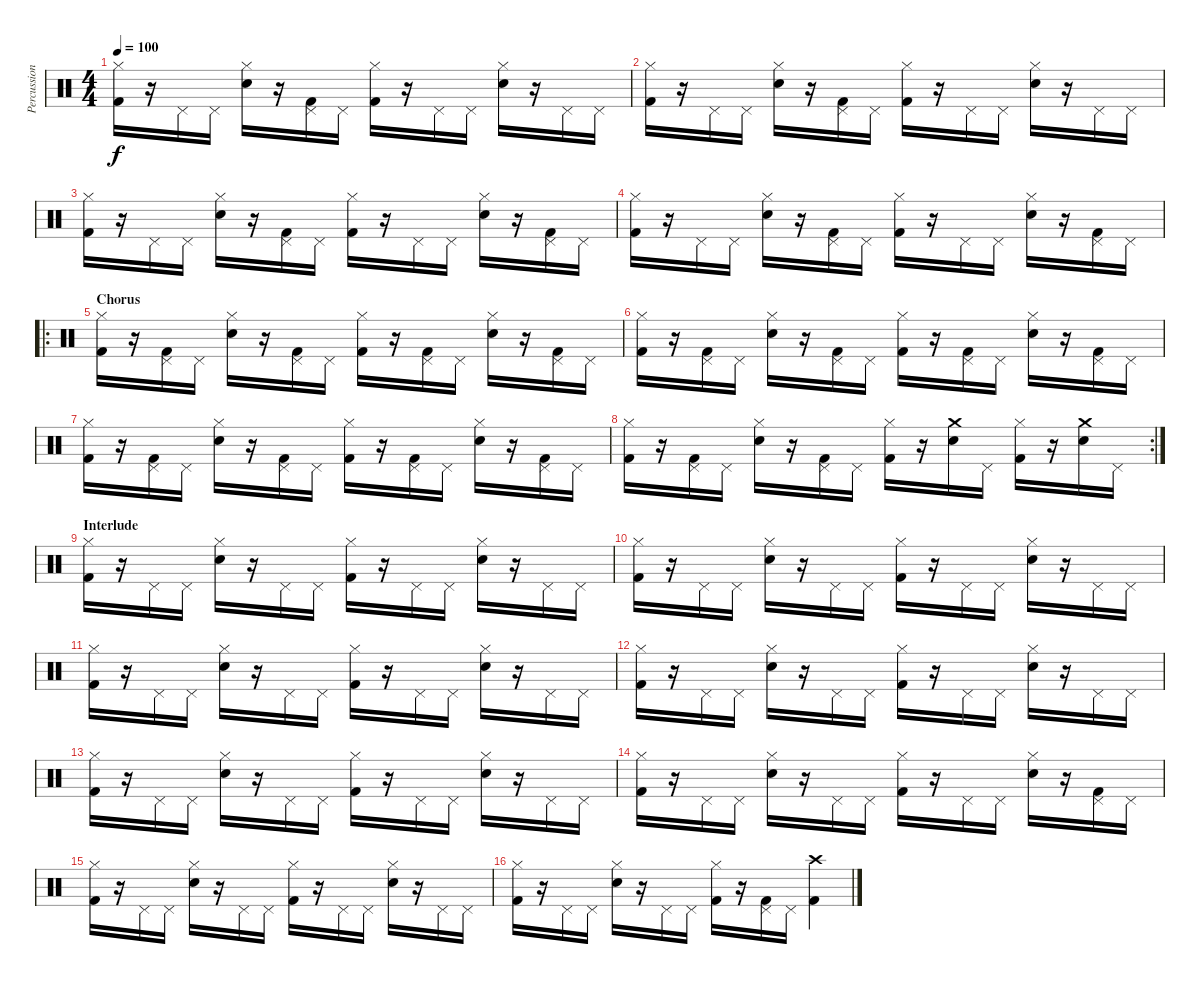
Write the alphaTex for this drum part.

\track ("Percussion" "Percussion") {instrument percussion}
\staff {score}
\articulation defaults
\ts (4 4)
\tempo 100
\clef neutral
\ks c
("Hi-Hat (closed)" "Kick (hit) 2").16{dy f} r.16 "Pedal Hi-Hat (hit)".16 "Pedal Hi-Hat (hit)".16 ("Hi-Hat (closed)" "Snare (hit) 2").16 r.16 ("Pedal Hi-Hat (hit)" "Kick (hit) 2").16 "Pedal Hi-Hat (hit)".16 ("Hi-Hat (closed)" "Kick (hit) 2").16 r.16 "Pedal Hi-Hat (hit)".16 "Pedal Hi-Hat (hit)".16 ("Hi-Hat (closed)" "Snare (hit) 2").16 r.16 "Pedal Hi-Hat (hit)".16 "Pedal Hi-Hat (hit)".16 |
("Hi-Hat (closed)" "Kick (hit) 2").16 r.16 "Pedal Hi-Hat (hit)".16 "Pedal Hi-Hat (hit)".16 ("Hi-Hat (closed)" "Snare (hit) 2").16 r.16 ("Pedal Hi-Hat (hit)" "Kick (hit) 2").16 "Pedal Hi-Hat (hit)".16 ("Hi-Hat (closed)" "Kick (hit) 2").16 r.16 "Pedal Hi-Hat (hit)".16 "Pedal Hi-Hat (hit)".16 ("Hi-Hat (closed)" "Snare (hit) 2").16 r.16 "Pedal Hi-Hat (hit)".16 "Pedal Hi-Hat (hit)".16 |
("Hi-Hat (closed)" "Kick (hit) 2").16 r.16 "Pedal Hi-Hat (hit)".16 "Pedal Hi-Hat (hit)".16 ("Hi-Hat (closed)" "Snare (hit) 2").16 r.16 ("Pedal Hi-Hat (hit)" "Kick (hit) 2").16 "Pedal Hi-Hat (hit)".16 ("Hi-Hat (closed)" "Kick (hit) 2").16 r.16 "Pedal Hi-Hat (hit)".16 "Pedal Hi-Hat (hit)".16 ("Hi-Hat (closed)" "Snare (hit) 2").16 r.16 ("Pedal Hi-Hat (hit)" "Kick (hit) 2").16 "Pedal Hi-Hat (hit)".16 |
("Hi-Hat (closed)" "Kick (hit) 2").16 r.16 "Pedal Hi-Hat (hit)".16 "Pedal Hi-Hat (hit)".16 ("Hi-Hat (closed)" "Snare (hit) 2").16 r.16 ("Pedal Hi-Hat (hit)" "Kick (hit) 2").16 "Pedal Hi-Hat (hit)".16 ("Hi-Hat (closed)" "Kick (hit) 2").16 r.16 "Pedal Hi-Hat (hit)".16 "Pedal Hi-Hat (hit)".16 ("Hi-Hat (closed)" "Snare (hit) 2").16 r.16 ("Pedal Hi-Hat (hit)" "Kick (hit) 2").16 "Pedal Hi-Hat (hit)".16 |
\ro
\section ("" "Chorus")
("Hi-Hat (closed)" "Kick (hit) 2").16 r.16 ("Pedal Hi-Hat (hit)" "Kick (hit) 2").16 "Pedal Hi-Hat (hit)".16 ("Hi-Hat (closed)" "Snare (hit) 2").16 r.16 ("Pedal Hi-Hat (hit)" "Kick (hit) 2").16 "Pedal Hi-Hat (hit)".16 ("Hi-Hat (closed)" "Kick (hit) 2").16 r.16 ("Pedal Hi-Hat (hit)" "Kick (hit) 2").16 "Pedal Hi-Hat (hit)".16 ("Hi-Hat (closed)" "Snare (hit) 2").16 r.16 ("Pedal Hi-Hat (hit)" "Kick (hit) 2").16 "Pedal Hi-Hat (hit)".16 |
("Hi-Hat (closed)" "Kick (hit) 2").16 r.16 ("Pedal Hi-Hat (hit)" "Kick (hit) 2").16 "Pedal Hi-Hat (hit)".16 ("Hi-Hat (closed)" "Snare (hit) 2").16 r.16 ("Pedal Hi-Hat (hit)" "Kick (hit) 2").16 "Pedal Hi-Hat (hit)".16 ("Hi-Hat (closed)" "Kick (hit) 2").16 r.16 ("Pedal Hi-Hat (hit)" "Kick (hit) 2").16 "Pedal Hi-Hat (hit)".16 ("Hi-Hat (closed)" "Snare (hit) 2").16 r.16 ("Pedal Hi-Hat (hit)" "Kick (hit) 2").16 "Pedal Hi-Hat (hit)".16 |
("Hi-Hat (closed)" "Kick (hit) 2").16 r.16 ("Pedal Hi-Hat (hit)" "Kick (hit) 2").16 "Pedal Hi-Hat (hit)".16 ("Hi-Hat (closed)" "Snare (hit) 2").16 r.16 ("Pedal Hi-Hat (hit)" "Kick (hit) 2").16 "Pedal Hi-Hat (hit)".16 ("Hi-Hat (closed)" "Kick (hit) 2").16 r.16 ("Pedal Hi-Hat (hit)" "Kick (hit) 2").16 "Pedal Hi-Hat (hit)".16 ("Hi-Hat (closed)" "Snare (hit) 2").16 r.16 ("Pedal Hi-Hat (hit)" "Kick (hit) 2").16 "Pedal Hi-Hat (hit)".16 |
\rc 2
("Hi-Hat (closed)" "Kick (hit) 2").16 r.16 ("Pedal Hi-Hat (hit)" "Kick (hit) 2").16 "Pedal Hi-Hat (hit)".16 ("Hi-Hat (closed)" "Snare (hit) 2").16 r.16 ("Pedal Hi-Hat (hit)" "Kick (hit) 2").16 "Pedal Hi-Hat (hit)".16 ("Hi-Hat (closed)" "Kick (hit) 2").16 r.16 ("Crash medium (hit)" "Snare (hit) 2").16 "Pedal Hi-Hat (hit)".16 ("Hi-Hat (closed)" "Kick (hit) 2").16 r.16 ("Crash medium (hit)" "Snare (hit) 2").16 "Pedal Hi-Hat (hit)".16 |
\section ("" "Interlude")
("Hi-Hat (closed)" "Kick (hit) 2").16 r.16 "Pedal Hi-Hat (hit)".16 "Pedal Hi-Hat (hit)".16 ("Hi-Hat (closed)" "Snare (hit) 2").16 r.16 "Pedal Hi-Hat (hit)".16 "Pedal Hi-Hat (hit)".16 ("Hi-Hat (closed)" "Kick (hit) 2").16 r.16 "Pedal Hi-Hat (hit)".16 "Pedal Hi-Hat (hit)".16 ("Hi-Hat (closed)" "Snare (hit) 2").16 r.16 "Pedal Hi-Hat (hit)".16 "Pedal Hi-Hat (hit)".16 |
("Hi-Hat (closed)" "Kick (hit) 2").16 r.16 "Pedal Hi-Hat (hit)".16 "Pedal Hi-Hat (hit)".16 ("Hi-Hat (closed)" "Snare (hit) 2").16 r.16 "Pedal Hi-Hat (hit)".16 "Pedal Hi-Hat (hit)".16 ("Hi-Hat (closed)" "Kick (hit) 2").16 r.16 "Pedal Hi-Hat (hit)".16 "Pedal Hi-Hat (hit)".16 ("Hi-Hat (closed)" "Snare (hit) 2").16 r.16 "Pedal Hi-Hat (hit)".16 "Pedal Hi-Hat (hit)".16 |
("Hi-Hat (closed)" "Kick (hit) 2").16 r.16 "Pedal Hi-Hat (hit)".16 "Pedal Hi-Hat (hit)".16 ("Hi-Hat (closed)" "Snare (hit) 2").16 r.16 "Pedal Hi-Hat (hit)".16 "Pedal Hi-Hat (hit)".16 ("Hi-Hat (closed)" "Kick (hit) 2").16 r.16 "Pedal Hi-Hat (hit)".16 "Pedal Hi-Hat (hit)".16 ("Hi-Hat (closed)" "Snare (hit) 2").16 r.16 "Pedal Hi-Hat (hit)".16 "Pedal Hi-Hat (hit)".16 |
("Hi-Hat (closed)" "Kick (hit) 2").16 r.16 "Pedal Hi-Hat (hit)".16 "Pedal Hi-Hat (hit)".16 ("Hi-Hat (closed)" "Snare (hit) 2").16 r.16 "Pedal Hi-Hat (hit)".16 "Pedal Hi-Hat (hit)".16 ("Hi-Hat (closed)" "Kick (hit) 2").16 r.16 "Pedal Hi-Hat (hit)".16 "Pedal Hi-Hat (hit)".16 ("Hi-Hat (closed)" "Snare (hit) 2").16 r.16 "Pedal Hi-Hat (hit)".16 "Pedal Hi-Hat (hit)".16 |
("Hi-Hat (closed)" "Kick (hit) 2").16 r.16 "Pedal Hi-Hat (hit)".16 "Pedal Hi-Hat (hit)".16 ("Hi-Hat (closed)" "Snare (hit) 2").16 r.16 "Pedal Hi-Hat (hit)".16 "Pedal Hi-Hat (hit)".16 ("Hi-Hat (closed)" "Kick (hit) 2").16 r.16 "Pedal Hi-Hat (hit)".16 "Pedal Hi-Hat (hit)".16 ("Hi-Hat (closed)" "Snare (hit) 2").16 r.16 "Pedal Hi-Hat (hit)".16 "Pedal Hi-Hat (hit)".16 |
("Hi-Hat (closed)" "Kick (hit) 2").16 r.16 "Pedal Hi-Hat (hit)".16 "Pedal Hi-Hat (hit)".16 ("Hi-Hat (closed)" "Snare (hit) 2").16 r.16 "Pedal Hi-Hat (hit)".16 "Pedal Hi-Hat (hit)".16 ("Hi-Hat (closed)" "Kick (hit) 2").16 r.16 "Pedal Hi-Hat (hit)".16 "Pedal Hi-Hat (hit)".16 ("Hi-Hat (closed)" "Snare (hit) 2").16 r.16 ("Pedal Hi-Hat (hit)" "Kick (hit) 2").16 "Pedal Hi-Hat (hit)".16 |
("Hi-Hat (closed)" "Kick (hit) 2").16 r.16 "Pedal Hi-Hat (hit)".16 "Pedal Hi-Hat (hit)".16 ("Hi-Hat (closed)" "Snare (hit) 2").16 r.16 "Pedal Hi-Hat (hit)".16 "Pedal Hi-Hat (hit)".16 ("Hi-Hat (closed)" "Kick (hit) 2").16 r.16 "Pedal Hi-Hat (hit)".16 "Pedal Hi-Hat (hit)".16 ("Hi-Hat (closed)" "Snare (hit) 2").16 r.16 "Pedal Hi-Hat (hit)".16 "Pedal Hi-Hat (hit)".16 |
("Hi-Hat (closed)" "Kick (hit) 2").16 r.16 "Pedal Hi-Hat (hit)".16 "Pedal Hi-Hat (hit)".16 ("Hi-Hat (closed)" "Snare (hit) 2").16 r.16 "Pedal Hi-Hat (hit)".16 "Pedal Hi-Hat (hit)".16 ("Hi-Hat (closed)" "Kick (hit) 2").16 r.16 ("Pedal Hi-Hat (hit)" "Kick (hit) 2").16 "Pedal Hi-Hat (hit)".16 ("Crash high (hit)" "Kick (hit) 2").4
